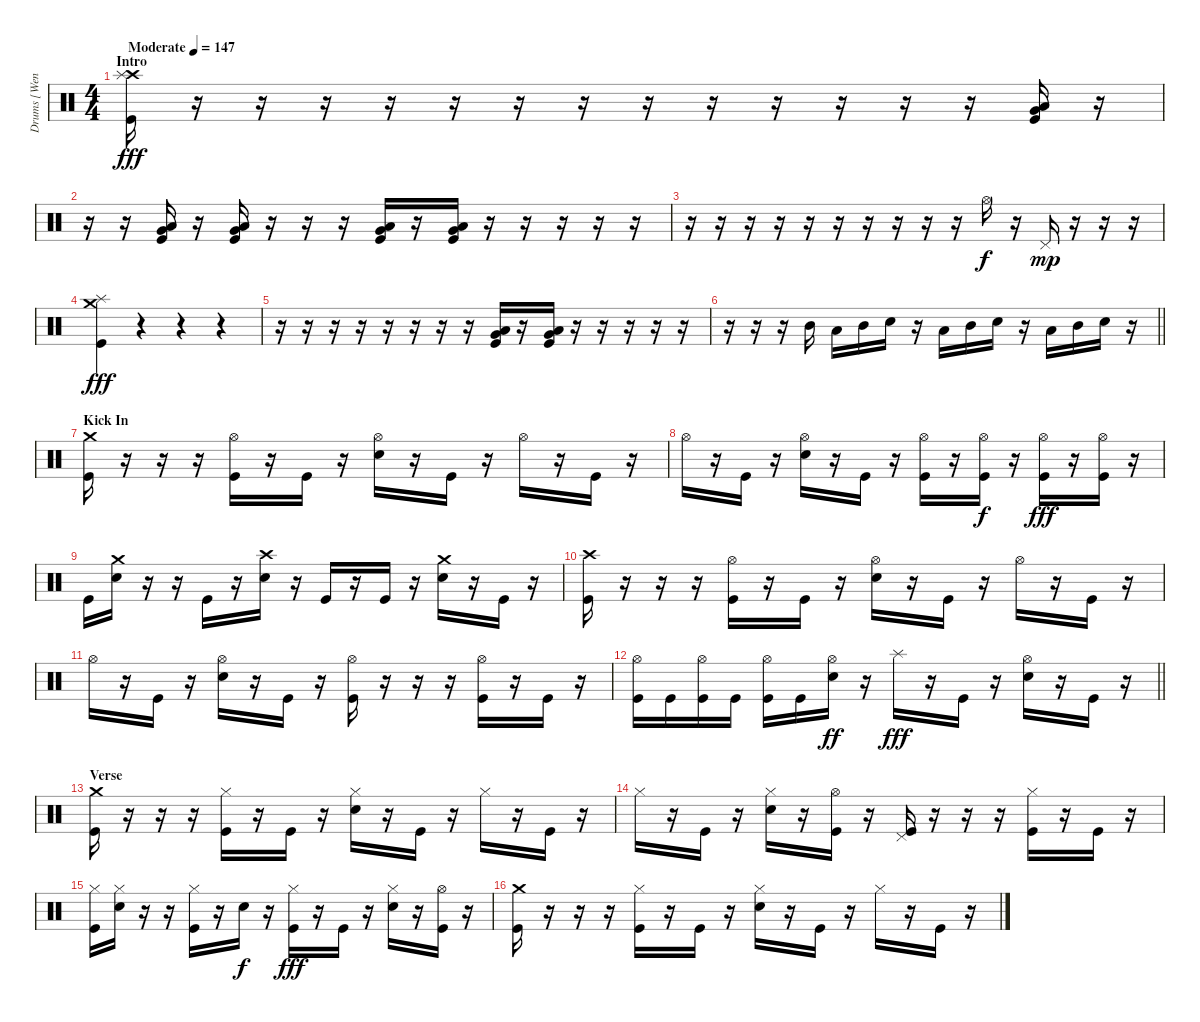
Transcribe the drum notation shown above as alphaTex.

\track ("Drums [Wengren]" "Drums [Wen") {instrument percussion}
\staff {score}
\articulation defaults
\ts (4 4)
\section ("" "Intro")
\tempo (147 "Moderate")
\clef neutral
\ks c
("Crash high (hit)" "Splash (hit)" "Kick (hit)").16{dy fff} r.16 r.16 r.16 r.16 r.16 r.16 r.16 r.16 r.16 r.16 r.16 r.16 r.16 ("Very Low Tom (hit)" "Low Floor Tom (hit)" "Kick (hit)").16 r.16 |
r.16 r.16 ("Very Low Tom (hit)" "Low Floor Tom (hit)" "Kick (hit)").16 r.16 ("Very Low Tom (hit)" "Low Floor Tom (hit)" "Kick (hit)").16 r.16 r.16 r.16 ("Very Low Tom (hit)" "Low Floor Tom (hit)" "Kick (hit)").16 r.16 ("Very Low Tom (hit)" "Low Floor Tom (hit)" "Kick (hit)").16 r.16 r.16 r.16 r.16 r.16 |
r.16 r.16 r.16 r.16 r.16 r.16 r.16 r.16 r.16 r.16 "Hi-Hat (open)".16{dy f} r.16 "Pedal Hi-Hat (hit)".16{dy mp} r.16 r.16 r.16 |
("Crash medium (hit)" "Splash (hit)" "Kick (hit)").4{dy fff} r.4 r.4 r.4 |
r.16 r.16 r.16 r.16 r.16 r.16 r.16 r.16 ("Very Low Tom (hit)" "Low Floor Tom (hit)" "Kick (hit)").16 r.16 ("Very Low Tom (hit)" "Low Floor Tom (hit)" "Kick (hit)").16 r.16 r.16 r.16 r.16 r.16 |
\barLineRight lightlight
r.16 r.16 r.16 "Mid Tom (hit)".16 "Low Tom (hit)".16 "Mid Tom (hit)".16 "Snare (hit) 2".16 r.16 "Low Tom (hit)".16 "Mid Tom (hit)".16 "Snare (hit) 2".16 r.16 "Low Tom (hit)".16 "Mid Tom (hit)".16 "Snare (hit) 2".16 r.16 |
\section ("" "Kick In")
("Crash medium (hit)" "Kick (hit)").16 r.16 r.16 r.16 ("Hi-Hat (open)" "Kick (hit)").16 r.16 "Kick (hit)".16 r.16 ("Hi-Hat (open)" "Snare (hit) 2").16 r.16 "Kick (hit)".16 r.16 "Hi-Hat (open)".16 r.16 "Kick (hit)".16 r.16 |
"Hi-Hat (open)".16 r.16 "Kick (hit)".16 r.16 ("Hi-Hat (open)" "Snare (hit) 2").16 r.16 "Kick (hit)".16 r.16 ("Hi-Hat (open)" "Kick (hit)").16 r.16 ("Hi-Hat (open)" "Kick (hit)").16{dy f} r.16 ("Hi-Hat (open)" "Kick (hit)").16{dy fff} r.16 ("Hi-Hat (open)" "Kick (hit)").16 r.16 |
"Kick (hit)".16 ("Crash medium (hit)" "Snare (hit) 2").16 r.16 r.16 "Kick (hit)".16 r.16 ("Crash high (hit)" "Snare (hit) 2").16 r.16 "Kick (hit)".16 r.16 "Kick (hit)".16 r.16 ("Crash medium (hit)" "Snare (hit) 2").16 r.16 "Kick (hit)".16 r.16 |
("Crash high (hit)" "Kick (hit)").16 r.16 r.16 r.16 ("Hi-Hat (open)" "Kick (hit)").16 r.16 "Kick (hit)".16 r.16 ("Hi-Hat (open)" "Snare (hit) 2").16 r.16 "Kick (hit)".16 r.16 "Hi-Hat (open)".16 r.16 "Kick (hit)".16 r.16 |
"Hi-Hat (open)".16 r.16 "Kick (hit)".16 r.16 ("Hi-Hat (open)" "Snare (hit) 2").16 r.16 "Kick (hit)".16 r.16 ("Hi-Hat (open)" "Kick (hit)").16 r.16 r.16 r.16 ("Hi-Hat (open)" "Kick (hit)").16 r.16 "Kick (hit)".16 r.16 |
\barLineRight lightlight
("Hi-Hat (open)" "Kick (hit)").16 "Kick (hit)".16 ("Hi-Hat (open)" "Kick (hit)").16 "Kick (hit)".16 ("Hi-Hat (open)" "Kick (hit)").16 "Kick (hit)".16 ("Hi-Hat (open)" "Snare (hit) 2").16{dy ff} r.16 "Splash (hit)".16{dy fff} r.16 "Kick (hit)".16 r.16 ("Hi-Hat (open)" "Snare (hit) 2").16 r.16 "Kick (hit)".16 r.16 |
\section ("" "Verse")
("Crash medium (hit)" "Kick (hit)").16 r.16 r.16 r.16 ("Hi-Hat (closed)" "Kick (hit)").16 r.16 "Kick (hit)".16 r.16 ("Hi-Hat (closed)" "Snare (hit) 2").16 r.16 "Kick (hit)".16 r.16 "Hi-Hat (closed)".16 r.16 "Kick (hit)".16 r.16 |
"Hi-Hat (closed)".16 r.16 "Kick (hit)".16 r.16 ("Hi-Hat (closed)" "Snare (hit) 2").16 r.16 ("Hi-Hat (open)" "Kick (hit)").16 r.16 ("Pedal Hi-Hat (hit)" "Kick (hit)").16 r.16 r.16 r.16 ("Hi-Hat (closed)" "Kick (hit)").16 r.16 "Kick (hit)".16 r.16 |
("Hi-Hat (closed)" "Kick (hit)").16 ("Hi-Hat (closed)" "Snare (hit) 2").16 r.16 r.16 ("Hi-Hat (closed)" "Kick (hit)").16 r.16 "Snare (hit) 2".16{dy f} r.16 ("Hi-Hat (closed)" "Kick (hit)").16{dy fff} r.16 "Kick (hit)".16 r.16 ("Hi-Hat (closed)" "Snare (hit) 2").16 r.16 ("Hi-Hat (open)" "Kick (hit)").16 r.16 |
("Crash medium (hit)" "Kick (hit)").16 r.16 r.16 r.16 ("Hi-Hat (closed)" "Kick (hit)").16 r.16 "Kick (hit)".16 r.16 ("Hi-Hat (closed)" "Snare (hit) 2").16 r.16 "Kick (hit)".16 r.16 "Hi-Hat (closed)".16 r.16 "Kick (hit)".16 r.16
